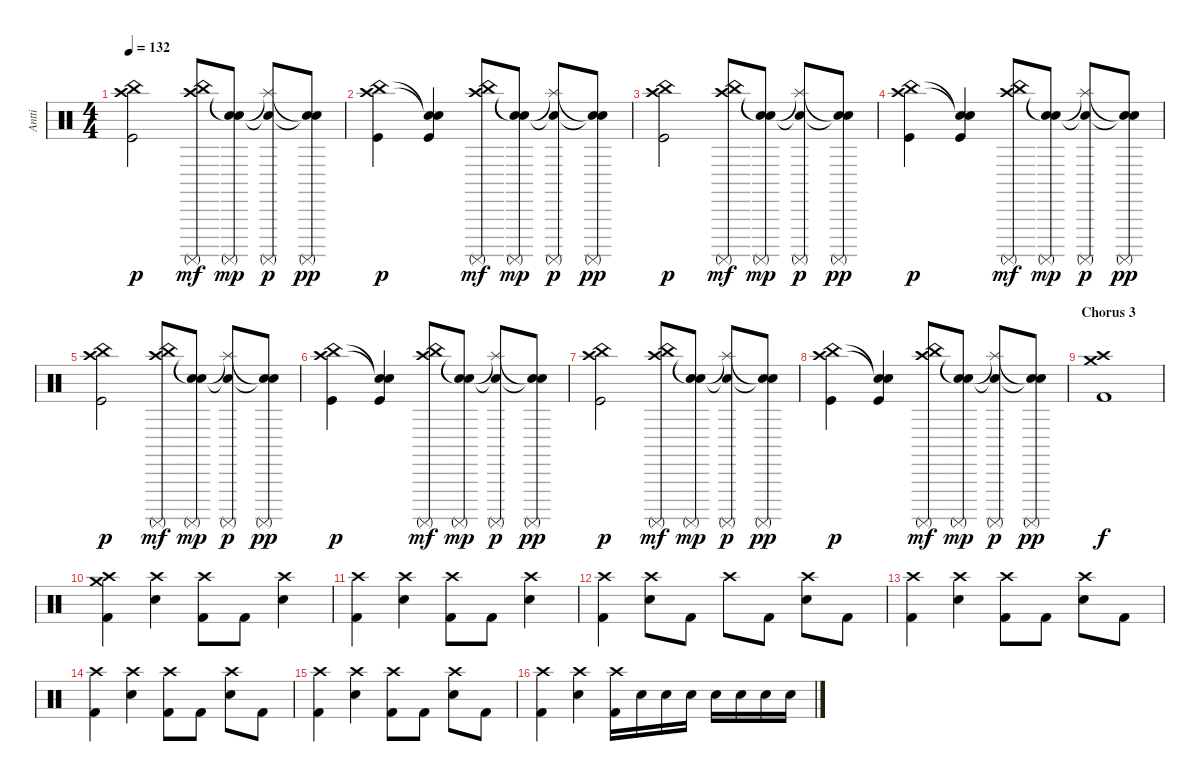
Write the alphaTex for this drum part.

\track ("Antti" "Antti") {instrument percussion}
\staff {score}
\articulation defaults
\ts (4 4)
\tempo 132
\clef neutral
\ks c
("China (hit)" "Crash high (hit)" "Kick (hit)").2{dy p} ("China (hit)" "Crash high (hit)" "Surdo (mute)").8{dy mf} ("Snare (hit)"{t} "Snare (hit)"{t} "Surdo (mute)").8{dy mp} ("Snare (hit)"{t} "Splash (hit)"{t} "Surdo (mute)").8{dy p} ("Snare (hit)"{t} "Snare (hit)"{t} "Surdo (mute)").8{dy pp} |
("China (hit)" "Crash high (hit)" "Kick (hit)").4{dy p} ("Snare (hit)"{t} "Snare (hit)"{t} "Kick (hit)").4 ("China (hit)" "Crash high (hit)" "Surdo (mute)").8{dy mf} ("Snare (hit)"{t} "Snare (hit)"{t} "Surdo (mute)").8{dy mp} ("Snare (hit)"{t} "Splash (hit)"{t} "Surdo (mute)").8{dy p} ("Snare (hit)"{t} "Snare (hit)"{t} "Surdo (mute)").8{dy pp} |
("China (hit)" "Crash high (hit)" "Kick (hit)").2{dy p} ("China (hit)" "Crash high (hit)" "Surdo (mute)").8{dy mf} ("Snare (hit)"{t} "Snare (hit)"{t} "Surdo (mute)").8{dy mp} ("Snare (hit)"{t} "Splash (hit)"{t} "Surdo (mute)").8{dy p} ("Snare (hit)"{t} "Snare (hit)"{t} "Surdo (mute)").8{dy pp} |
("China (hit)" "Crash high (hit)" "Kick (hit)").4{dy p} ("Snare (hit)"{t} "Snare (hit)"{t} "Kick (hit)").4 ("China (hit)" "Crash high (hit)" "Surdo (mute)").8{dy mf} ("Snare (hit)"{t} "Snare (hit)"{t} "Surdo (mute)").8{dy mp} ("Snare (hit)"{t} "Splash (hit)"{t} "Surdo (mute)").8{dy p} ("Snare (hit)"{t} "Snare (hit)"{t} "Surdo (mute)").8{dy pp} |
("China (hit)" "Crash high (hit)" "Kick (hit)").2{dy p} ("China (hit)" "Crash high (hit)" "Surdo (mute)").8{dy mf} ("Snare (hit)"{t} "Snare (hit)"{t} "Surdo (mute)").8{dy mp} ("Snare (hit)"{t} "Splash (hit)"{t} "Surdo (mute)").8{dy p} ("Snare (hit)"{t} "Snare (hit)"{t} "Surdo (mute)").8{dy pp} |
("China (hit)" "Crash high (hit)" "Kick (hit)").4{dy p} ("Snare (hit)"{t} "Snare (hit)"{t} "Kick (hit)").4 ("China (hit)" "Crash high (hit)" "Surdo (mute)").8{dy mf} ("Snare (hit)"{t} "Snare (hit)"{t} "Surdo (mute)").8{dy mp} ("Snare (hit)"{t} "Splash (hit)"{t} "Surdo (mute)").8{dy p} ("Snare (hit)"{t} "Snare (hit)"{t} "Surdo (mute)").8{dy pp} |
("China (hit)" "Crash high (hit)" "Kick (hit)").2{dy p} ("China (hit)" "Crash high (hit)" "Surdo (mute)").8{dy mf} ("Snare (hit)"{t} "Snare (hit)"{t} "Surdo (mute)").8{dy mp} ("Snare (hit)"{t} "Splash (hit)"{t} "Surdo (mute)").8{dy p} ("Snare (hit)"{t} "Snare (hit)"{t} "Surdo (mute)").8{dy pp} |
("China (hit)" "Crash high (hit)" "Kick (hit)").4{dy p} ("Snare (hit)"{t} "Snare (hit)"{t} "Kick (hit)").4 ("China (hit)" "Crash high (hit)" "Surdo (mute)").8{dy mf} ("Snare (hit)"{t} "Snare (hit)"{t} "Surdo (mute)").8{dy mp} ("Snare (hit)"{t} "Splash (hit)"{t} "Surdo (mute)").8{dy p} ("Snare (hit)"{t} "Snare (hit)"{t} "Surdo (mute)").8{dy pp} |
\section ("" "Chorus 3")
("Crash high (hit)" "Crash medium (hit)" "Kick (hit) 2").1{dy f} |
("Crash high (hit)" "Crash medium (hit)" "Kick (hit) 2").4 ("Crash high (hit)" "Electric Snare (hit)").4 ("Crash high (hit)" "Kick (hit) 2").8 "Kick (hit) 2".8 ("Crash high (hit)" "Electric Snare (hit)").4 |
("Crash high (hit)" "Kick (hit) 2").4 ("Crash high (hit)" "Electric Snare (hit)").4 ("Crash high (hit)" "Kick (hit) 2").8 "Kick (hit) 2".8 ("Crash high (hit)" "Electric Snare (hit)").4 |
("Crash high (hit)" "Kick (hit) 2").4 ("Crash high (hit)" "Electric Snare (hit)").8 "Kick (hit) 2".8 "Crash high (hit)".8 "Kick (hit) 2".8 ("Crash high (hit)" "Electric Snare (hit)").8 "Kick (hit) 2".8 |
("Crash high (hit)" "Kick (hit) 2").4 ("Crash high (hit)" "Electric Snare (hit)").4 ("Crash high (hit)" "Kick (hit) 2").8 "Kick (hit) 2".8 ("Crash high (hit)" "Electric Snare (hit)").8 "Kick (hit) 2".8 |
("Crash high (hit)" "Kick (hit) 2").4 ("Crash high (hit)" "Electric Snare (hit)").4 ("Crash high (hit)" "Kick (hit) 2").8 "Kick (hit) 2".8 ("Crash high (hit)" "Electric Snare (hit)").8 "Kick (hit) 2".8 |
("Crash high (hit)" "Kick (hit) 2").4 ("Crash high (hit)" "Electric Snare (hit)").4 ("Crash high (hit)" "Kick (hit) 2").8 "Kick (hit) 2".8 ("Crash high (hit)" "Electric Snare (hit)").8 "Kick (hit) 2".8 |
("Crash high (hit)" "Kick (hit) 2").4 ("Crash high (hit)" "Electric Snare (hit)").4 ("Crash high (hit)" "Kick (hit) 2").16 "Electric Snare (hit)".16 "Electric Snare (hit)".16 "Electric Snare (hit)".16 "Electric Snare (hit)".16 "Electric Snare (hit)".16 "Electric Snare (hit)".16 "Electric Snare (hit)".16
